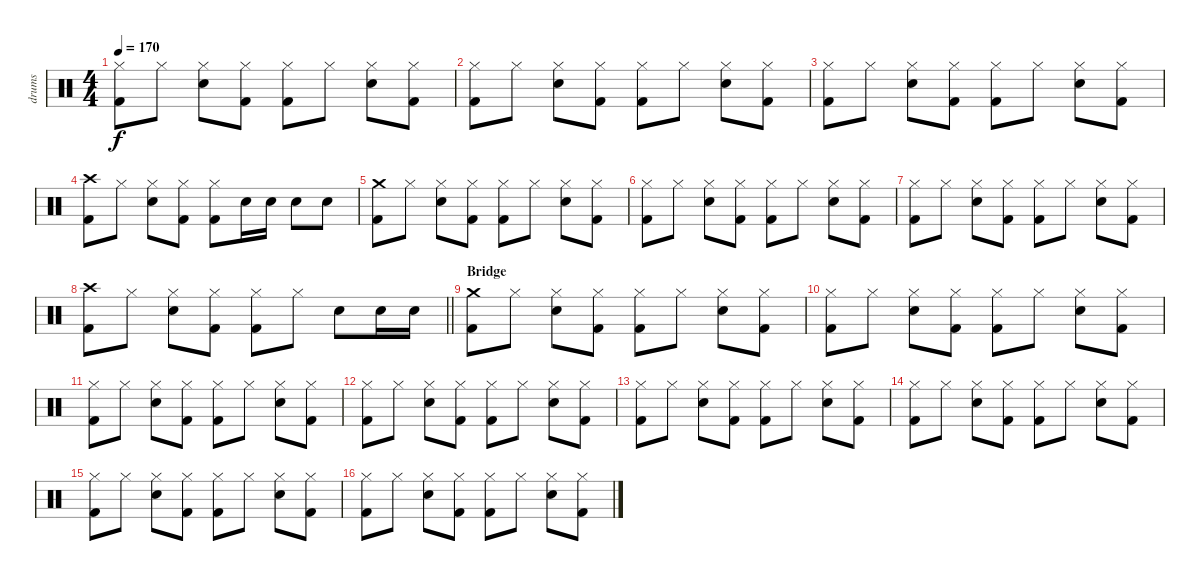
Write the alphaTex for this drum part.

\track ("drums" "drums") {instrument percussion}
\staff {score}
\articulation defaults
\ts (4 4)
\tempo 170
\clef neutral
\ks c
("Hi-Hat (closed)" "Kick (hit) 2").8{dy f} "Hi-Hat (closed)".8 ("Hi-Hat (closed)" "Snare (hit) 2").8 ("Hi-Hat (closed)" "Kick (hit) 2").8 ("Hi-Hat (closed)" "Kick (hit) 2").8 "Hi-Hat (closed)".8 ("Hi-Hat (closed)" "Snare (hit) 2").8 ("Hi-Hat (closed)" "Kick (hit) 2").8 |
("Hi-Hat (closed)" "Kick (hit) 2").8 "Hi-Hat (closed)".8 ("Hi-Hat (closed)" "Snare (hit) 2").8 ("Hi-Hat (closed)" "Kick (hit) 2").8 ("Hi-Hat (closed)" "Kick (hit) 2").8 "Hi-Hat (closed)".8 ("Hi-Hat (closed)" "Snare (hit) 2").8 ("Hi-Hat (closed)" "Kick (hit) 2").8 |
("Hi-Hat (closed)" "Kick (hit) 2").8 "Hi-Hat (closed)".8 ("Hi-Hat (closed)" "Snare (hit) 2").8 ("Hi-Hat (closed)" "Kick (hit) 2").8 ("Hi-Hat (closed)" "Kick (hit) 2").8 "Hi-Hat (closed)".8 ("Hi-Hat (closed)" "Snare (hit) 2").8 ("Hi-Hat (closed)" "Kick (hit) 2").8 |
("Crash high (hit)" "Kick (hit) 2").8 "Hi-Hat (closed)".8 ("Hi-Hat (closed)" "Snare (hit) 2").8 ("Hi-Hat (closed)" "Kick (hit) 2").8 ("Hi-Hat (closed)" "Kick (hit) 2").8 "Snare (hit) 2".16 "Snare (hit) 2".16 "Snare (hit) 2".8 "Snare (hit) 2".8 |
("Crash medium (hit)" "Kick (hit) 2").8 "Hi-Hat (closed)".8 ("Hi-Hat (closed)" "Snare (hit) 2").8 ("Hi-Hat (closed)" "Kick (hit) 2").8 ("Hi-Hat (closed)" "Kick (hit) 2").8 "Hi-Hat (closed)".8 ("Hi-Hat (closed)" "Snare (hit) 2").8 ("Hi-Hat (closed)" "Kick (hit) 2").8 |
("Hi-Hat (closed)" "Kick (hit) 2").8 "Hi-Hat (closed)".8 ("Hi-Hat (closed)" "Snare (hit) 2").8 ("Hi-Hat (closed)" "Kick (hit) 2").8 ("Hi-Hat (closed)" "Kick (hit) 2").8 "Hi-Hat (closed)".8 ("Hi-Hat (closed)" "Snare (hit) 2").8 ("Hi-Hat (closed)" "Kick (hit) 2").8 |
("Hi-Hat (closed)" "Kick (hit) 2").8 "Hi-Hat (closed)".8 ("Hi-Hat (closed)" "Snare (hit) 2").8 ("Hi-Hat (closed)" "Kick (hit) 2").8 ("Hi-Hat (closed)" "Kick (hit) 2").8 "Hi-Hat (closed)".8 ("Hi-Hat (closed)" "Snare (hit) 2").8 ("Hi-Hat (closed)" "Kick (hit) 2").8 |
\barLineRight lightlight
("Crash high (hit)" "Kick (hit) 2").8 "Hi-Hat (closed)".8 ("Hi-Hat (closed)" "Snare (hit) 2").8 ("Hi-Hat (closed)" "Kick (hit) 2").8 ("Hi-Hat (closed)" "Kick (hit) 2").8 "Hi-Hat (closed)".8 "Snare (hit) 2".8 "Snare (hit) 2".16 "Snare (hit) 2".16 |
\section ("" "Bridge")
("Crash medium (hit)" "Kick (hit) 2").8 "Hi-Hat (closed)".8 ("Hi-Hat (closed)" "Snare (hit) 2").8 ("Hi-Hat (closed)" "Kick (hit) 2").8 ("Hi-Hat (closed)" "Kick (hit) 2").8 "Hi-Hat (closed)".8 ("Hi-Hat (closed)" "Snare (hit) 2").8 ("Hi-Hat (closed)" "Kick (hit) 2").8 |
("Hi-Hat (closed)" "Kick (hit) 2").8 "Hi-Hat (closed)".8 ("Hi-Hat (closed)" "Snare (hit) 2").8 ("Hi-Hat (closed)" "Kick (hit) 2").8 ("Hi-Hat (closed)" "Kick (hit) 2").8 "Hi-Hat (closed)".8 ("Hi-Hat (closed)" "Snare (hit) 2").8 ("Hi-Hat (closed)" "Kick (hit) 2").8 |
("Hi-Hat (closed)" "Kick (hit) 2").8 "Hi-Hat (closed)".8 ("Hi-Hat (closed)" "Snare (hit) 2").8 ("Hi-Hat (closed)" "Kick (hit) 2").8 ("Hi-Hat (closed)" "Kick (hit) 2").8 "Hi-Hat (closed)".8 ("Hi-Hat (closed)" "Snare (hit) 2").8 ("Hi-Hat (closed)" "Kick (hit) 2").8 |
("Hi-Hat (closed)" "Kick (hit) 2").8 "Hi-Hat (closed)".8 ("Hi-Hat (closed)" "Snare (hit) 2").8 ("Hi-Hat (closed)" "Kick (hit) 2").8 ("Hi-Hat (closed)" "Kick (hit) 2").8 "Hi-Hat (closed)".8 ("Hi-Hat (closed)" "Snare (hit) 2").8 ("Hi-Hat (closed)" "Kick (hit) 2").8 |
("Hi-Hat (closed)" "Kick (hit) 2").8 "Hi-Hat (closed)".8 ("Hi-Hat (closed)" "Snare (hit) 2").8 ("Hi-Hat (closed)" "Kick (hit) 2").8 ("Hi-Hat (closed)" "Kick (hit) 2").8 "Hi-Hat (closed)".8 ("Hi-Hat (closed)" "Snare (hit) 2").8 ("Hi-Hat (closed)" "Kick (hit) 2").8 |
("Hi-Hat (closed)" "Kick (hit) 2").8 "Hi-Hat (closed)".8 ("Hi-Hat (closed)" "Snare (hit) 2").8 ("Hi-Hat (closed)" "Kick (hit) 2").8 ("Hi-Hat (closed)" "Kick (hit) 2").8 "Hi-Hat (closed)".8 ("Hi-Hat (closed)" "Snare (hit) 2").8 ("Hi-Hat (closed)" "Kick (hit) 2").8 |
("Hi-Hat (closed)" "Kick (hit) 2").8 "Hi-Hat (closed)".8 ("Hi-Hat (closed)" "Snare (hit) 2").8 ("Hi-Hat (closed)" "Kick (hit) 2").8 ("Hi-Hat (closed)" "Kick (hit) 2").8 "Hi-Hat (closed)".8 ("Hi-Hat (closed)" "Snare (hit) 2").8 ("Hi-Hat (closed)" "Kick (hit) 2").8 |
("Hi-Hat (closed)" "Kick (hit) 2").8 "Hi-Hat (closed)".8 ("Hi-Hat (closed)" "Snare (hit) 2").8 ("Hi-Hat (closed)" "Kick (hit) 2").8 ("Hi-Hat (closed)" "Kick (hit) 2").8 "Hi-Hat (closed)".8 ("Hi-Hat (closed)" "Snare (hit) 2").8 ("Hi-Hat (closed)" "Kick (hit) 2").8
